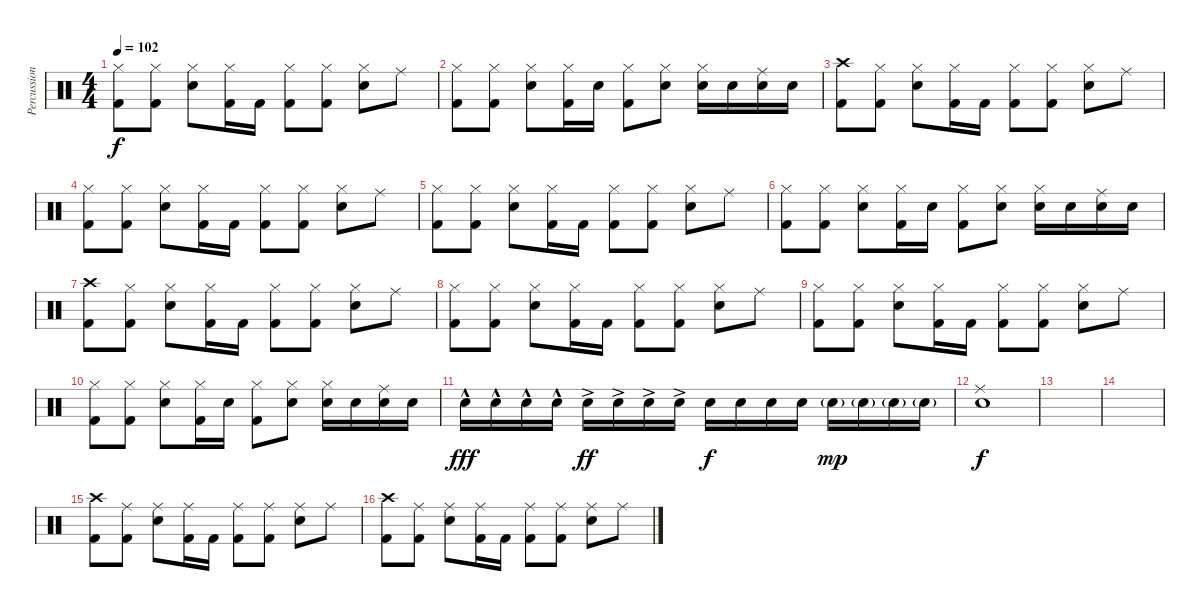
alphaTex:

\track ("Percussion" "Percussion") {instrument percussion}
\staff {score}
\articulation defaults
\ts (4 4)
\tempo 102
\clef neutral
\ks c
("Hi-Hat (closed)" "Kick (hit) 2").8{dy f} ("Hi-Hat (closed)" "Kick (hit) 2").8 ("Hi-Hat (closed)" "Snare (hit) 2").8 ("Hi-Hat (closed)" "Kick (hit) 2").16 "Kick (hit) 2".16 ("Hi-Hat (closed)" "Kick (hit) 2").8 ("Hi-Hat (closed)" "Kick (hit) 2").8 ("Hi-Hat (closed)" "Snare (hit) 2").8 "Ride (middle)".8 |
("Hi-Hat (closed)" "Kick (hit) 2").8 ("Hi-Hat (closed)" "Kick (hit) 2").8 ("Hi-Hat (closed)" "Snare (hit) 2").8 ("Hi-Hat (closed)" "Kick (hit) 2").16 "Snare (hit) 2".16 ("Hi-Hat (closed)" "Kick (hit) 2").8 ("Hi-Hat (closed)" "Snare (hit) 2").8 ("Hi-Hat (closed)" "Snare (hit) 2").16 "Snare (hit) 2".16 ("Ride (middle)" "Snare (hit) 2").16 "Snare (hit) 2".16 |
("Crash high (hit)" "Kick (hit) 2").8 ("Hi-Hat (closed)" "Kick (hit) 2").8 ("Hi-Hat (closed)" "Snare (hit) 2").8 ("Hi-Hat (closed)" "Kick (hit) 2").16 "Kick (hit) 2".16 ("Hi-Hat (closed)" "Kick (hit) 2").8 ("Hi-Hat (closed)" "Kick (hit) 2").8 ("Hi-Hat (closed)" "Snare (hit) 2").8 "Ride (middle)".8 |
("Hi-Hat (closed)" "Kick (hit) 2").8 ("Hi-Hat (closed)" "Kick (hit) 2").8 ("Hi-Hat (closed)" "Snare (hit) 2").8 ("Hi-Hat (closed)" "Kick (hit) 2").16 "Kick (hit) 2".16 ("Hi-Hat (closed)" "Kick (hit) 2").8 ("Hi-Hat (closed)" "Kick (hit) 2").8 ("Hi-Hat (closed)" "Snare (hit) 2").8 "Ride (middle)".8 |
("Hi-Hat (closed)" "Kick (hit) 2").8 ("Hi-Hat (closed)" "Kick (hit) 2").8 ("Hi-Hat (closed)" "Snare (hit) 2").8 ("Hi-Hat (closed)" "Kick (hit) 2").16 "Kick (hit) 2".16 ("Hi-Hat (closed)" "Kick (hit) 2").8 ("Hi-Hat (closed)" "Kick (hit) 2").8 ("Hi-Hat (closed)" "Snare (hit) 2").8 "Ride (middle)".8 |
("Hi-Hat (closed)" "Kick (hit) 2").8 ("Hi-Hat (closed)" "Kick (hit) 2").8 ("Hi-Hat (closed)" "Snare (hit) 2").8 ("Hi-Hat (closed)" "Kick (hit) 2").16 "Snare (hit) 2".16 ("Hi-Hat (closed)" "Kick (hit) 2").8 ("Hi-Hat (closed)" "Snare (hit) 2").8 ("Hi-Hat (closed)" "Snare (hit) 2").16 "Snare (hit) 2".16 ("Ride (middle)" "Snare (hit) 2").16 "Snare (hit) 2".16 |
("Crash high (hit)" "Kick (hit) 2").8 ("Hi-Hat (closed)" "Kick (hit) 2").8 ("Hi-Hat (closed)" "Snare (hit) 2").8 ("Hi-Hat (closed)" "Kick (hit) 2").16 "Kick (hit) 2".16 ("Hi-Hat (closed)" "Kick (hit) 2").8 ("Hi-Hat (closed)" "Kick (hit) 2").8 ("Hi-Hat (closed)" "Snare (hit) 2").8 "Ride (middle)".8 |
("Hi-Hat (closed)" "Kick (hit) 2").8 ("Hi-Hat (closed)" "Kick (hit) 2").8 ("Hi-Hat (closed)" "Snare (hit) 2").8 ("Hi-Hat (closed)" "Kick (hit) 2").16 "Kick (hit) 2".16 ("Hi-Hat (closed)" "Kick (hit) 2").8 ("Hi-Hat (closed)" "Kick (hit) 2").8 ("Hi-Hat (closed)" "Snare (hit) 2").8 "Ride (middle)".8 |
("Hi-Hat (closed)" "Kick (hit) 2").8 ("Hi-Hat (closed)" "Kick (hit) 2").8 ("Hi-Hat (closed)" "Snare (hit) 2").8 ("Hi-Hat (closed)" "Kick (hit) 2").16 "Kick (hit) 2".16 ("Hi-Hat (closed)" "Kick (hit) 2").8 ("Hi-Hat (closed)" "Kick (hit) 2").8 ("Hi-Hat (closed)" "Snare (hit) 2").8 "Ride (middle)".8 |
("Hi-Hat (closed)" "Kick (hit) 2").8 ("Hi-Hat (closed)" "Kick (hit) 2").8 ("Hi-Hat (closed)" "Snare (hit) 2").8 ("Hi-Hat (closed)" "Kick (hit) 2").16 "Snare (hit) 2".16 ("Hi-Hat (closed)" "Kick (hit) 2").8 ("Hi-Hat (closed)" "Snare (hit) 2").8 ("Hi-Hat (closed)" "Snare (hit) 2").16 "Snare (hit) 2".16 ("Ride (middle)" "Snare (hit) 2").16 "Snare (hit) 2".16 |
"Snare (hit) 2"{hac}.16{dy fff} "Snare (hit) 2"{hac}.16 "Snare (hit) 2"{hac}.16 "Snare (hit) 2"{hac}.16 "Snare (hit) 2"{ac}.16{dy ff} "Snare (hit) 2"{ac}.16 "Snare (hit) 2"{ac}.16 "Snare (hit) 2"{ac}.16 "Snare (hit) 2".16{dy f} "Snare (hit) 2".16 "Snare (hit) 2".16 "Snare (hit) 2".16 "Snare (hit) 2"{g}.16{dy mp} "Snare (hit) 2"{g}.16 "Snare (hit) 2"{g}.16 "Snare (hit) 2"{g}.16 |
("Snare (hit) 2" "Ride (middle)").1{dy f} |
|
|
("Crash high (hit)" "Kick (hit) 2").8 ("Ride (middle)" "Kick (hit) 2").8 ("Ride (middle)" "Snare (hit) 2").8 ("Ride (middle)" "Kick (hit) 2").16 "Kick (hit) 2".16 ("Ride (middle)" "Kick (hit) 2").8 ("Ride (middle)" "Kick (hit) 2").8 ("Ride (middle)" "Snare (hit) 2").8 "Ride (middle)".8 |
("Crash high (hit)" "Kick (hit) 2").8 ("Ride (middle)" "Kick (hit) 2").8 ("Ride (middle)" "Snare (hit) 2").8 ("Ride (middle)" "Kick (hit) 2").16 "Kick (hit) 2".16 ("Ride (middle)" "Kick (hit) 2").8 ("Ride (middle)" "Kick (hit) 2").8 ("Ride (middle)" "Snare (hit) 2").8 "Ride (middle)".8
